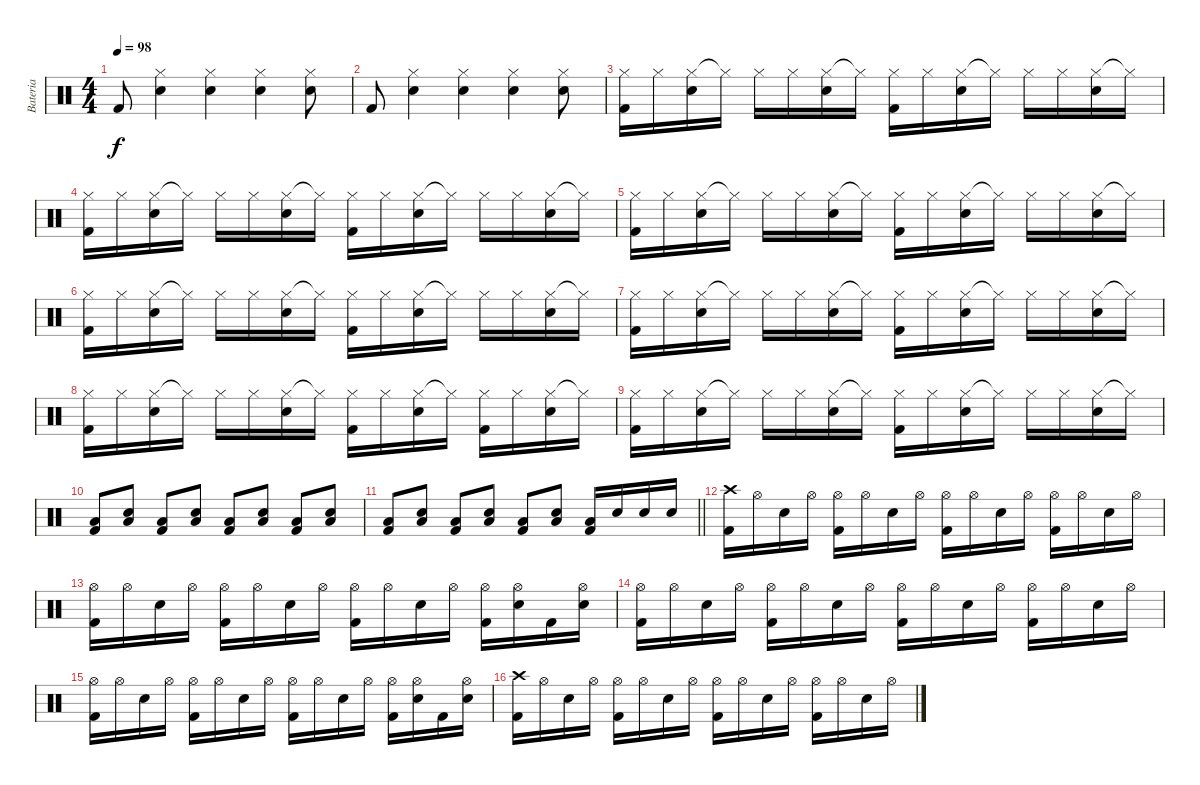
\track ("Bateria" "Bateria") {instrument percussion}
\staff {score}
\articulation defaults
\ts (4 4)
\tempo 98
\clef neutral
\ks c "Kick (hit) 2".8{dy f}
("Hi-Hat (closed)" "Snare (hit) 2").4 ("Hi-Hat (closed)" "Snare (hit) 2").4 ("Hi-Hat (closed)" "Snare (hit) 2").4 ("Hi-Hat (closed)" "Snare (hit) 2").8 |
"Kick (hit) 2".8 ("Hi-Hat (closed)" "Snare (hit) 2").4 ("Hi-Hat (closed)" "Snare (hit) 2").4 ("Hi-Hat (closed)" "Snare (hit) 2").4 ("Hi-Hat (closed)" "Snare (hit) 2").8 |
("Hi-Hat (closed)" "Kick (hit) 2").16 "Hi-Hat (closed)".16 ("Hi-Hat (closed)" "Snare (hit) 2").16 "Hi-Hat (closed)"{t}.16 "Hi-Hat (closed)".16 "Hi-Hat (closed)".16 ("Hi-Hat (closed)" "Snare (hit) 2").16 "Hi-Hat (closed)"{t}.16 ("Hi-Hat (closed)" "Kick (hit) 2").16 "Hi-Hat (closed)".16 ("Hi-Hat (closed)" "Snare (hit) 2").16 "Hi-Hat (closed)"{t}.16 "Hi-Hat (closed)".16 "Hi-Hat (closed)".16 ("Hi-Hat (closed)" "Snare (hit) 2").16 "Hi-Hat (closed)"{t}.16 |
("Hi-Hat (closed)" "Kick (hit) 2").16 "Hi-Hat (closed)".16 ("Hi-Hat (closed)" "Snare (hit) 2").16 "Hi-Hat (closed)"{t}.16 "Hi-Hat (closed)".16 "Hi-Hat (closed)".16 ("Hi-Hat (closed)" "Snare (hit) 2").16 "Hi-Hat (closed)"{t}.16 ("Hi-Hat (closed)" "Kick (hit) 2").16 "Hi-Hat (closed)".16 ("Hi-Hat (closed)" "Snare (hit) 2").16 "Hi-Hat (closed)"{t}.16 "Hi-Hat (closed)".16 "Hi-Hat (closed)".16 ("Hi-Hat (closed)" "Snare (hit) 2").16 "Hi-Hat (closed)"{t}.16 |
("Hi-Hat (closed)" "Kick (hit) 2").16 "Hi-Hat (closed)".16 ("Hi-Hat (closed)" "Snare (hit) 2").16 "Hi-Hat (closed)"{t}.16 "Hi-Hat (closed)".16 "Hi-Hat (closed)".16 ("Hi-Hat (closed)" "Snare (hit) 2").16 "Hi-Hat (closed)"{t}.16 ("Hi-Hat (closed)" "Kick (hit) 2").16 "Hi-Hat (closed)".16 ("Hi-Hat (closed)" "Snare (hit) 2").16 "Hi-Hat (closed)"{t}.16 "Hi-Hat (closed)".16 "Hi-Hat (closed)".16 ("Hi-Hat (closed)" "Snare (hit) 2").16 "Hi-Hat (closed)"{t}.16 |
("Hi-Hat (closed)" "Kick (hit) 2").16 "Hi-Hat (closed)".16 ("Hi-Hat (closed)" "Snare (hit) 2").16 "Hi-Hat (closed)"{t}.16 "Hi-Hat (closed)".16 "Hi-Hat (closed)".16 ("Hi-Hat (closed)" "Snare (hit) 2").16 "Hi-Hat (closed)"{t}.16 ("Hi-Hat (closed)" "Kick (hit) 2").16 "Hi-Hat (closed)".16 ("Hi-Hat (closed)" "Snare (hit) 2").16 "Hi-Hat (closed)"{t}.16 "Hi-Hat (closed)".16 "Hi-Hat (closed)".16 ("Hi-Hat (closed)" "Snare (hit) 2").16 "Hi-Hat (closed)"{t}.16 |
("Hi-Hat (closed)" "Kick (hit) 2").16 "Hi-Hat (closed)".16 ("Hi-Hat (closed)" "Snare (hit) 2").16 "Hi-Hat (closed)"{t}.16 "Hi-Hat (closed)".16 "Hi-Hat (closed)".16 ("Hi-Hat (closed)" "Snare (hit) 2").16 "Hi-Hat (closed)"{t}.16 ("Hi-Hat (closed)" "Kick (hit) 2").16 "Hi-Hat (closed)".16 ("Hi-Hat (closed)" "Snare (hit) 2").16 "Hi-Hat (closed)"{t}.16 "Hi-Hat (closed)".16 "Hi-Hat (closed)".16 ("Hi-Hat (closed)" "Snare (hit) 2").16 "Hi-Hat (closed)"{t}.16 |
("Hi-Hat (closed)" "Kick (hit) 2").16 "Hi-Hat (closed)".16 ("Hi-Hat (closed)" "Snare (hit) 2").16 "Hi-Hat (closed)"{t}.16 "Hi-Hat (closed)".16 "Hi-Hat (closed)".16 ("Hi-Hat (closed)" "Snare (hit) 2").16 "Hi-Hat (closed)"{t}.16 ("Hi-Hat (closed)" "Kick (hit) 2").16 "Hi-Hat (closed)".16 ("Hi-Hat (closed)" "Snare (hit) 2").16 "Hi-Hat (closed)"{t}.16 ("Hi-Hat (closed)" "Kick (hit) 2").16 "Hi-Hat (closed)".16 ("Hi-Hat (closed)" "Snare (hit) 2").16 "Hi-Hat (closed)"{t}.16 |
("Hi-Hat (closed)" "Kick (hit) 2").16 "Hi-Hat (closed)".16 ("Hi-Hat (closed)" "Snare (hit) 2").16 "Hi-Hat (closed)"{t}.16 "Hi-Hat (closed)".16 "Hi-Hat (closed)".16 ("Hi-Hat (closed)" "Snare (hit) 2").16 "Hi-Hat (closed)"{t}.16 ("Hi-Hat (closed)" "Kick (hit) 2").16 "Hi-Hat (closed)".16 ("Hi-Hat (closed)" "Snare (hit) 2").16 "Hi-Hat (closed)"{t}.16 "Hi-Hat (closed)".16 "Hi-Hat (closed)".16 ("Hi-Hat (closed)" "Snare (hit) 2").16 "Hi-Hat (closed)"{t}.16 |
("Low Floor Tom (hit)" "Kick (hit) 2").8 ("Low Floor Tom (hit)" "Snare (hit) 2").8 ("Low Floor Tom (hit)" "Kick (hit) 2").8 ("Low Floor Tom (hit)" "Snare (hit) 2").8 ("Low Floor Tom (hit)" "Kick (hit) 2").8 ("Low Floor Tom (hit)" "Snare (hit) 2").8 ("Low Floor Tom (hit)" "Kick (hit) 2").8 ("Low Floor Tom (hit)" "Snare (hit) 2").8 |
\barLineRight lightlight
("Low Floor Tom (hit)" "Kick (hit) 2").8 ("Low Floor Tom (hit)" "Snare (hit) 2").8 ("Low Floor Tom (hit)" "Kick (hit) 2").8 ("Low Floor Tom (hit)" "Snare (hit) 2").8 ("Low Floor Tom (hit)" "Kick (hit) 2").8 ("Low Floor Tom (hit)" "Snare (hit) 2").8 ("Low Floor Tom (hit)" "Kick (hit) 2").16 "Snare (hit) 2".16 "Snare (hit) 2".16 "Snare (hit) 2".16 |
("Crash high (hit)" "Kick (hit) 2").16 "Hi-Hat (open)".16 "Snare (hit) 2".16 "Hi-Hat (open)".16 ("Hi-Hat (open)" "Kick (hit) 2").16 "Hi-Hat (open)".16 "Snare (hit) 2".16 "Hi-Hat (open)".16 ("Hi-Hat (open)" "Kick (hit) 2").16 "Hi-Hat (open)".16 "Snare (hit) 2".16 "Hi-Hat (open)".16 ("Hi-Hat (open)" "Kick (hit) 2").16 "Hi-Hat (open)".16 "Snare (hit) 2".16 "Hi-Hat (open)".16 |
("Hi-Hat (open)" "Kick (hit) 2").16 "Hi-Hat (open)".16 "Snare (hit) 2".16 "Hi-Hat (open)".16 ("Hi-Hat (open)" "Kick (hit) 2").16 "Hi-Hat (open)".16 "Snare (hit) 2".16 "Hi-Hat (open)".16 ("Hi-Hat (open)" "Kick (hit) 2").16 "Hi-Hat (open)".16 "Snare (hit) 2".16 "Hi-Hat (open)".16 ("Hi-Hat (open)" "Kick (hit) 2").16 ("Hi-Hat (open)" "Snare (hit) 2").16 "Kick (hit) 2".16 ("Hi-Hat (open)" "Snare (hit) 2").16 |
("Hi-Hat (open)" "Kick (hit) 2").16 "Hi-Hat (open)".16 "Snare (hit) 2".16 "Hi-Hat (open)".16 ("Hi-Hat (open)" "Kick (hit) 2").16 "Hi-Hat (open)".16 "Snare (hit) 2".16 "Hi-Hat (open)".16 ("Hi-Hat (open)" "Kick (hit) 2").16 "Hi-Hat (open)".16 "Snare (hit) 2".16 "Hi-Hat (open)".16 ("Hi-Hat (open)" "Kick (hit) 2").16 "Hi-Hat (open)".16 "Snare (hit) 2".16 "Hi-Hat (open)".16 |
("Hi-Hat (open)" "Kick (hit) 2").16 "Hi-Hat (open)".16 "Snare (hit) 2".16 "Hi-Hat (open)".16 ("Hi-Hat (open)" "Kick (hit) 2").16 "Hi-Hat (open)".16 "Snare (hit) 2".16 "Hi-Hat (open)".16 ("Hi-Hat (open)" "Kick (hit) 2").16 "Hi-Hat (open)".16 "Snare (hit) 2".16 "Hi-Hat (open)".16 ("Hi-Hat (open)" "Kick (hit) 2").16 ("Hi-Hat (open)" "Snare (hit) 2").16 "Kick (hit) 2".16 ("Hi-Hat (open)" "Snare (hit) 2").16 |
("Crash high (hit)" "Kick (hit) 2").16 "Hi-Hat (open)".16 "Snare (hit) 2".16 "Hi-Hat (open)".16 ("Hi-Hat (open)" "Kick (hit) 2").16 "Hi-Hat (open)".16 "Snare (hit) 2".16 "Hi-Hat (open)".16 ("Hi-Hat (open)" "Kick (hit) 2").16 "Hi-Hat (open)".16 "Snare (hit) 2".16 "Hi-Hat (open)".16 ("Hi-Hat (open)" "Kick (hit) 2").16 "Hi-Hat (open)".16 "Snare (hit) 2".16 "Hi-Hat (open)".16
